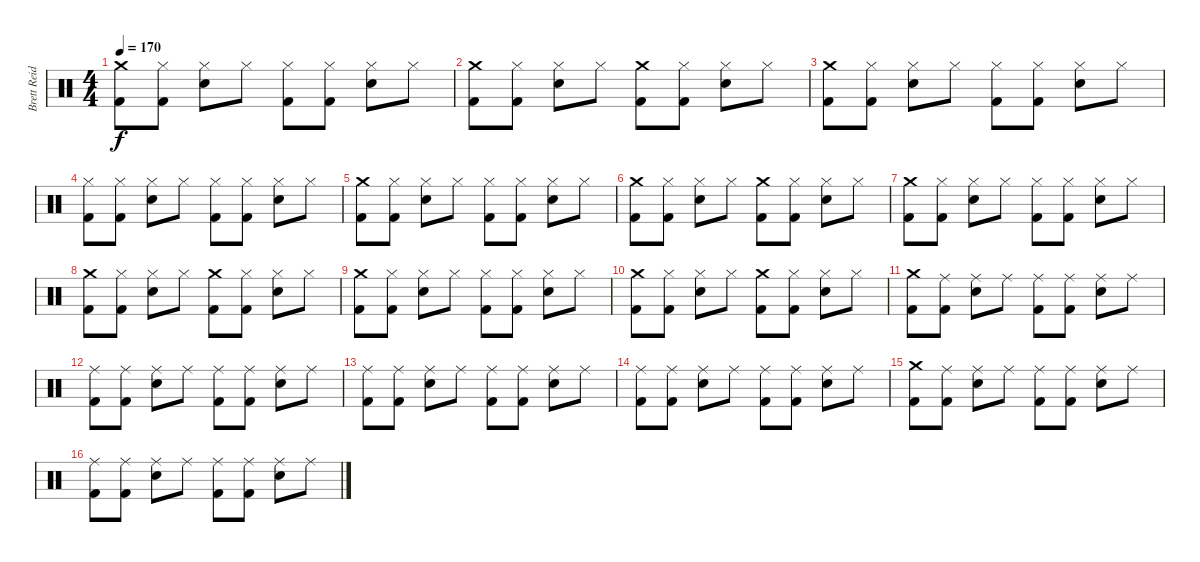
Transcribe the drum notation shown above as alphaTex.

\track ("Brett Reid" "Brett Reid") {instrument percussion}
\staff {score}
\articulation defaults
\ts (4 4)
\tempo 170
\clef neutral
\ks c
("Crash medium (hit)" "Kick (hit) 2").8{dy f} ("Hi-Hat (closed)" "Kick (hit) 2").8 ("Hi-Hat (closed)" "Snare (hit) 2").8 "Hi-Hat (closed)".8 ("Hi-Hat (closed)" "Kick (hit) 2").8 ("Hi-Hat (closed)" "Kick (hit) 2").8 ("Hi-Hat (closed)" "Snare (hit) 2").8 "Hi-Hat (closed)".8 |
("Crash medium (hit)" "Kick (hit) 2").8 ("Hi-Hat (closed)" "Kick (hit) 2").8 ("Hi-Hat (closed)" "Snare (hit) 2").8 "Hi-Hat (closed)".8 ("Crash medium (hit)" "Kick (hit) 2").8 ("Hi-Hat (closed)" "Kick (hit) 2").8 ("Hi-Hat (closed)" "Snare (hit) 2").8 "Hi-Hat (closed)".8 |
("Crash medium (hit)" "Kick (hit) 2").8 ("Hi-Hat (closed)" "Kick (hit) 2").8 ("Hi-Hat (closed)" "Snare (hit) 2").8 "Hi-Hat (closed)".8 ("Hi-Hat (closed)" "Kick (hit) 2").8 ("Hi-Hat (closed)" "Kick (hit) 2").8 ("Hi-Hat (closed)" "Snare (hit) 2").8 "Hi-Hat (closed)".8 |
("Hi-Hat (closed)" "Kick (hit) 2").8 ("Hi-Hat (closed)" "Kick (hit) 2").8 ("Hi-Hat (closed)" "Snare (hit) 2").8 "Hi-Hat (closed)".8 ("Hi-Hat (closed)" "Kick (hit) 2").8 ("Hi-Hat (closed)" "Kick (hit) 2").8 ("Hi-Hat (closed)" "Snare (hit) 2").8 "Hi-Hat (closed)".8 |
("Crash medium (hit)" "Kick (hit) 2").8 ("Hi-Hat (closed)" "Kick (hit) 2").8 ("Hi-Hat (closed)" "Snare (hit) 2").8 "Hi-Hat (closed)".8 ("Hi-Hat (closed)" "Kick (hit) 2").8 ("Hi-Hat (closed)" "Kick (hit) 2").8 ("Hi-Hat (closed)" "Snare (hit) 2").8 "Hi-Hat (closed)".8 |
("Crash medium (hit)" "Kick (hit) 2").8 ("Hi-Hat (closed)" "Kick (hit) 2").8 ("Hi-Hat (closed)" "Snare (hit) 2").8 "Hi-Hat (closed)".8 ("Crash medium (hit)" "Kick (hit) 2").8 ("Hi-Hat (closed)" "Kick (hit) 2").8 ("Hi-Hat (closed)" "Snare (hit) 2").8 "Hi-Hat (closed)".8 |
("Crash medium (hit)" "Kick (hit) 2").8 ("Hi-Hat (closed)" "Kick (hit) 2").8 ("Hi-Hat (closed)" "Snare (hit) 2").8 "Hi-Hat (closed)".8 ("Hi-Hat (closed)" "Kick (hit) 2").8 ("Hi-Hat (closed)" "Kick (hit) 2").8 ("Hi-Hat (closed)" "Snare (hit) 2").8 "Hi-Hat (closed)".8 |
("Crash medium (hit)" "Kick (hit) 2").8 ("Hi-Hat (closed)" "Kick (hit) 2").8 ("Hi-Hat (closed)" "Snare (hit) 2").8 "Hi-Hat (closed)".8 ("Crash medium (hit)" "Kick (hit) 2").8 ("Hi-Hat (closed)" "Kick (hit) 2").8 ("Hi-Hat (closed)" "Snare (hit) 2").8 "Hi-Hat (closed)".8 |
("Crash medium (hit)" "Kick (hit) 2").8 ("Hi-Hat (closed)" "Kick (hit) 2").8 ("Hi-Hat (closed)" "Snare (hit) 2").8 "Hi-Hat (closed)".8 ("Hi-Hat (closed)" "Kick (hit) 2").8 ("Hi-Hat (closed)" "Kick (hit) 2").8 ("Hi-Hat (closed)" "Snare (hit) 2").8 "Hi-Hat (closed)".8 |
("Crash medium (hit)" "Kick (hit) 2").8 ("Hi-Hat (closed)" "Kick (hit) 2").8 ("Hi-Hat (closed)" "Snare (hit) 2").8 "Hi-Hat (closed)".8 ("Crash medium (hit)" "Kick (hit) 2").8 ("Hi-Hat (closed)" "Kick (hit) 2").8 ("Hi-Hat (closed)" "Snare (hit) 2").8 "Hi-Hat (closed)".8 |
("Crash medium (hit)" "Kick (hit) 2").8 ("Ride (middle)" "Kick (hit) 2").8 ("Ride (middle)" "Snare (hit) 2").8 "Ride (middle)".8 ("Ride (middle)" "Kick (hit) 2").8 ("Ride (middle)" "Kick (hit) 2").8 ("Ride (middle)" "Snare (hit) 2").8 "Ride (middle)".8 |
("Ride (middle)" "Kick (hit) 2").8 ("Ride (middle)" "Kick (hit) 2").8 ("Ride (middle)" "Snare (hit) 2").8 "Ride (middle)".8 ("Ride (middle)" "Kick (hit) 2").8 ("Ride (middle)" "Kick (hit) 2").8 ("Ride (middle)" "Snare (hit) 2").8 "Ride (middle)".8 |
("Ride (middle)" "Kick (hit) 2").8 ("Ride (middle)" "Kick (hit) 2").8 ("Ride (middle)" "Snare (hit) 2").8 "Ride (middle)".8 ("Ride (middle)" "Kick (hit) 2").8 ("Ride (middle)" "Kick (hit) 2").8 ("Ride (middle)" "Snare (hit) 2").8 "Ride (middle)".8 |
("Ride (middle)" "Kick (hit) 2").8 ("Ride (middle)" "Kick (hit) 2").8 ("Ride (middle)" "Snare (hit) 2").8 "Ride (middle)".8 ("Ride (middle)" "Kick (hit) 2").8 ("Ride (middle)" "Kick (hit) 2").8 ("Ride (middle)" "Snare (hit) 2").8 "Ride (middle)".8 |
("Crash medium (hit)" "Kick (hit) 2").8 ("Ride (middle)" "Kick (hit) 2").8 ("Ride (middle)" "Snare (hit) 2").8 "Ride (middle)".8 ("Ride (middle)" "Kick (hit) 2").8 ("Ride (middle)" "Kick (hit) 2").8 ("Ride (middle)" "Snare (hit) 2").8 "Ride (middle)".8 |
("Ride (middle)" "Kick (hit) 2").8 ("Ride (middle)" "Kick (hit) 2").8 ("Ride (middle)" "Snare (hit) 2").8 "Ride (middle)".8 ("Ride (middle)" "Kick (hit) 2").8 ("Ride (middle)" "Kick (hit) 2").8 ("Ride (middle)" "Snare (hit) 2").8 "Ride (middle)".8
